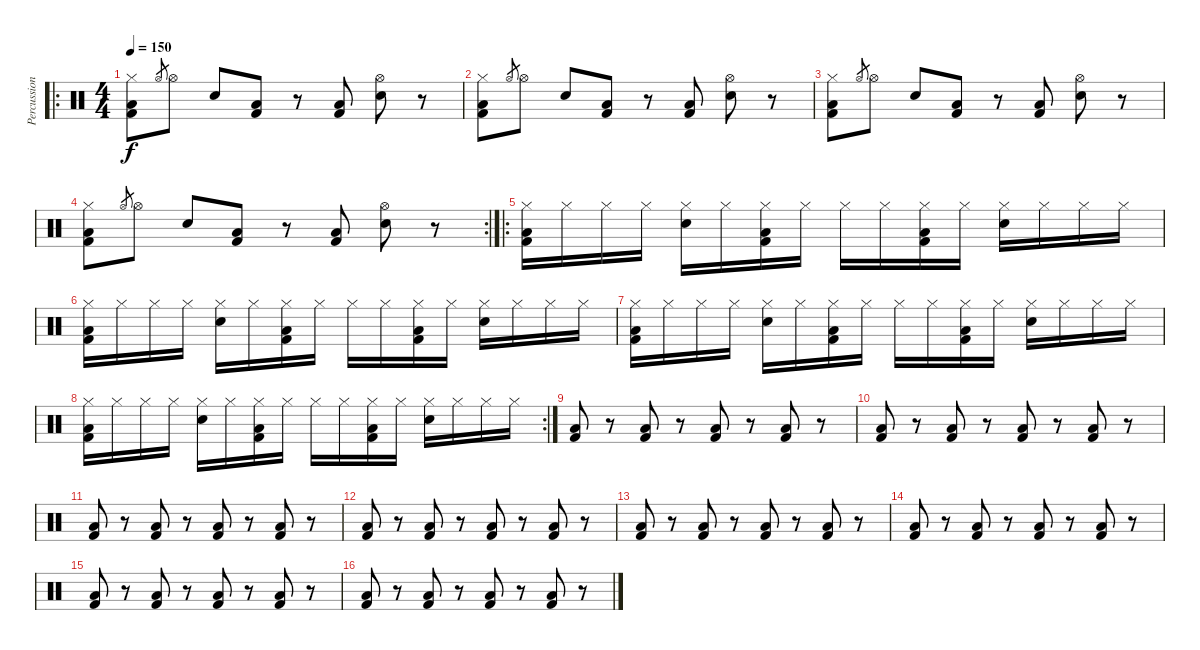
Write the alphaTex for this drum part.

\track ("Percussion" "Percussion") {instrument percussion}
\staff {score}
\articulation defaults
\ro
\ts (4 4)
\tempo 150
\clef neutral
\ks c
("Hi-Hat (closed)" "Low Floor Tom (hit)" "Kick (hit) 2").8{dy f} "Hi-Hat (open)".8{gr} "Hi-Hat (open)".8 "Hand Clap (hit)".8 ("Low Floor Tom (hit)" "Kick (hit) 2").8 r.8 ("Low Floor Tom (hit)" "Kick (hit) 2").8 ("Hi-Hat (open)" "Hand Clap (hit)").8 r.8 |
("Hi-Hat (closed)" "Low Floor Tom (hit)" "Kick (hit) 2").8 "Hi-Hat (open)".8{gr} "Hi-Hat (open)".8 "Hand Clap (hit)".8 ("Low Floor Tom (hit)" "Kick (hit) 2").8 r.8 ("Low Floor Tom (hit)" "Kick (hit) 2").8 ("Hi-Hat (open)" "Hand Clap (hit)").8 r.8 |
("Hi-Hat (closed)" "Low Floor Tom (hit)" "Kick (hit) 2").8 "Hi-Hat (open)".8{gr} "Hi-Hat (open)".8 "Hand Clap (hit)".8 ("Low Floor Tom (hit)" "Kick (hit) 2").8 r.8 ("Low Floor Tom (hit)" "Kick (hit) 2").8 ("Hi-Hat (open)" "Hand Clap (hit)").8 r.8 |
\rc 2
("Hi-Hat (closed)" "Low Floor Tom (hit)" "Kick (hit) 2").8 "Hi-Hat (open)".8{gr} "Hi-Hat (open)".8 "Hand Clap (hit)".8 ("Low Floor Tom (hit)" "Kick (hit) 2").8 r.8 ("Low Floor Tom (hit)" "Kick (hit) 2").8 ("Hi-Hat (open)" "Hand Clap (hit)").8 r.8 |
\ro
("Hi-Hat (closed)" "Low Floor Tom (hit)" "Kick (hit) 2").16 "Hi-Hat (closed)".16 "Hi-Hat (closed)".16 "Hi-Hat (closed)".16 ("Hi-Hat (closed)" "Hand Clap (hit)").16 "Hi-Hat (closed)".16 ("Hi-Hat (closed)" "Low Floor Tom (hit)" "Kick (hit) 2").16 "Hi-Hat (closed)".16 "Hi-Hat (closed)".16 "Hi-Hat (closed)".16 ("Hi-Hat (closed)" "Low Floor Tom (hit)" "Kick (hit) 2").16 "Hi-Hat (closed)".16 ("Hi-Hat (closed)" "Hand Clap (hit)").16 "Hi-Hat (closed)".16 "Hi-Hat (closed)".16 "Hi-Hat (closed)".16 |
("Hi-Hat (closed)" "Low Floor Tom (hit)" "Kick (hit) 2").16 "Hi-Hat (closed)".16 "Hi-Hat (closed)".16 "Hi-Hat (closed)".16 ("Hi-Hat (closed)" "Hand Clap (hit)").16 "Hi-Hat (closed)".16 ("Hi-Hat (closed)" "Low Floor Tom (hit)" "Kick (hit) 2").16 "Hi-Hat (closed)".16 "Hi-Hat (closed)".16 "Hi-Hat (closed)".16 ("Hi-Hat (closed)" "Low Floor Tom (hit)" "Kick (hit) 2").16 "Hi-Hat (closed)".16 ("Hi-Hat (closed)" "Hand Clap (hit)").16 "Hi-Hat (closed)".16 "Hi-Hat (closed)".16 "Hi-Hat (closed)".16 |
("Hi-Hat (closed)" "Low Floor Tom (hit)" "Kick (hit) 2").16 "Hi-Hat (closed)".16 "Hi-Hat (closed)".16 "Hi-Hat (closed)".16 ("Hi-Hat (closed)" "Hand Clap (hit)").16 "Hi-Hat (closed)".16 ("Hi-Hat (closed)" "Low Floor Tom (hit)" "Kick (hit) 2").16 "Hi-Hat (closed)".16 "Hi-Hat (closed)".16 "Hi-Hat (closed)".16 ("Hi-Hat (closed)" "Low Floor Tom (hit)" "Kick (hit) 2").16 "Hi-Hat (closed)".16 ("Hi-Hat (closed)" "Hand Clap (hit)").16 "Hi-Hat (closed)".16 "Hi-Hat (closed)".16 "Hi-Hat (closed)".16 |
\rc 2
("Hi-Hat (closed)" "Low Floor Tom (hit)" "Kick (hit) 2").16 "Hi-Hat (closed)".16 "Hi-Hat (closed)".16 "Hi-Hat (closed)".16 ("Hi-Hat (closed)" "Hand Clap (hit)").16 "Hi-Hat (closed)".16 ("Hi-Hat (closed)" "Low Floor Tom (hit)" "Kick (hit) 2").16 "Hi-Hat (closed)".16 "Hi-Hat (closed)".16 "Hi-Hat (closed)".16 ("Hi-Hat (closed)" "Low Floor Tom (hit)" "Kick (hit) 2").16 "Hi-Hat (closed)".16 ("Hi-Hat (closed)" "Hand Clap (hit)").16 "Hi-Hat (closed)".16 "Hi-Hat (closed)".16 "Hi-Hat (closed)".16 |
("Low Floor Tom (hit)" "Kick (hit) 2").8 r.8 ("Low Floor Tom (hit)" "Kick (hit) 2").8 r.8 ("Low Floor Tom (hit)" "Kick (hit) 2").8 r.8 ("Low Floor Tom (hit)" "Kick (hit) 2").8 r.8 |
("Low Floor Tom (hit)" "Kick (hit) 2").8 r.8 ("Low Floor Tom (hit)" "Kick (hit) 2").8 r.8 ("Low Floor Tom (hit)" "Kick (hit) 2").8 r.8 ("Low Floor Tom (hit)" "Kick (hit) 2").8 r.8 |
("Low Floor Tom (hit)" "Kick (hit) 2").8 r.8 ("Low Floor Tom (hit)" "Kick (hit) 2").8 r.8 ("Low Floor Tom (hit)" "Kick (hit) 2").8 r.8 ("Low Floor Tom (hit)" "Kick (hit) 2").8 r.8 |
("Low Floor Tom (hit)" "Kick (hit) 2").8 r.8 ("Low Floor Tom (hit)" "Kick (hit) 2").8 r.8 ("Low Floor Tom (hit)" "Kick (hit) 2").8 r.8 ("Low Floor Tom (hit)" "Kick (hit) 2").8 r.8 |
("Low Floor Tom (hit)" "Kick (hit) 2").8 r.8 ("Low Floor Tom (hit)" "Kick (hit) 2").8 r.8 ("Low Floor Tom (hit)" "Kick (hit) 2").8 r.8 ("Low Floor Tom (hit)" "Kick (hit) 2").8 r.8 |
("Low Floor Tom (hit)" "Kick (hit) 2").8 r.8 ("Low Floor Tom (hit)" "Kick (hit) 2").8 r.8 ("Low Floor Tom (hit)" "Kick (hit) 2").8 r.8 ("Low Floor Tom (hit)" "Kick (hit) 2").8 r.8 |
("Low Floor Tom (hit)" "Kick (hit) 2").8 r.8 ("Low Floor Tom (hit)" "Kick (hit) 2").8 r.8 ("Low Floor Tom (hit)" "Kick (hit) 2").8 r.8 ("Low Floor Tom (hit)" "Kick (hit) 2").8 r.8 |
("Low Floor Tom (hit)" "Kick (hit) 2").8 r.8 ("Low Floor Tom (hit)" "Kick (hit) 2").8 r.8 ("Low Floor Tom (hit)" "Kick (hit) 2").8 r.8 ("Low Floor Tom (hit)" "Kick (hit) 2").8 r.8
